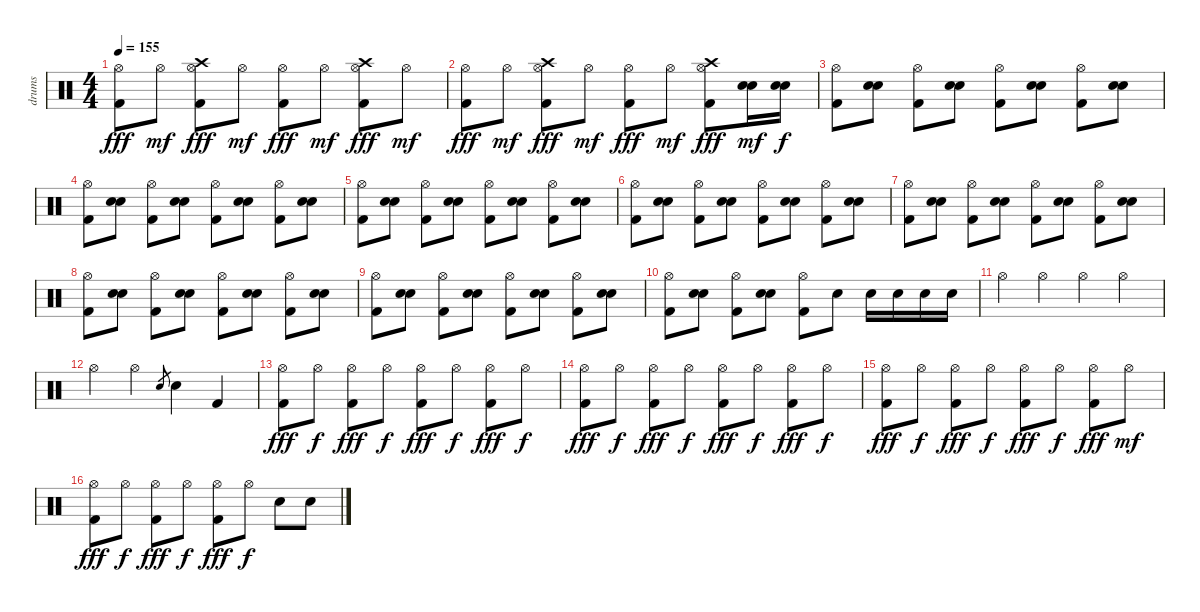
\track ("drums" "drums") {instrument percussion}
\staff {score}
\articulation defaults
\ts (4 4)
\tempo 155
\clef neutral
\ks c
("Hi-Hat (open)" "Kick (hit) 2").8{dy fff} "Hi-Hat (open)".8{dy mf} ("Crash high (hit)" "Hi-Hat (open)" "Kick (hit) 2").8{dy fff} "Hi-Hat (open)".8{dy mf} ("Hi-Hat (open)" "Kick (hit) 2").8{dy fff} "Hi-Hat (open)".8{dy mf} ("Crash high (hit)" "Hi-Hat (open)" "Kick (hit) 2").8{dy fff} "Hi-Hat (open)".8{dy mf} |
("Hi-Hat (open)" "Kick (hit) 2").8{dy fff} "Hi-Hat (open)".8{dy mf} ("Crash high (hit)" "Hi-Hat (open)" "Kick (hit) 2").8{dy fff} "Hi-Hat (open)".8{dy mf} ("Hi-Hat (open)" "Kick (hit) 2").8{dy fff} "Hi-Hat (open)".8{dy mf} ("Crash high (hit)" "Hi-Hat (open)" "Kick (hit) 2").8{dy fff} ("Snare (hit) 2" "Snare (hit) 2").16{dy mf} ("Snare (hit) 2" "Snare (hit) 2").16{dy f} |
("Hi-Hat (open)" "Kick (hit) 2").8 ("Snare (hit) 2" "Snare (hit) 2").8 ("Hi-Hat (open)" "Kick (hit) 2").8 ("Snare (hit) 2" "Snare (hit) 2").8 ("Hi-Hat (open)" "Kick (hit) 2").8 ("Snare (hit) 2" "Snare (hit) 2").8 ("Hi-Hat (open)" "Kick (hit) 2").8 ("Snare (hit) 2" "Snare (hit) 2").8 |
("Hi-Hat (open)" "Kick (hit) 2").8 ("Snare (hit) 2" "Snare (hit) 2").8 ("Hi-Hat (open)" "Kick (hit) 2").8 ("Snare (hit) 2" "Snare (hit) 2").8 ("Hi-Hat (open)" "Kick (hit) 2").8 ("Snare (hit) 2" "Snare (hit) 2").8 ("Hi-Hat (open)" "Kick (hit) 2").8 ("Snare (hit) 2" "Snare (hit) 2").8 |
("Hi-Hat (open)" "Kick (hit) 2").8 ("Snare (hit) 2" "Snare (hit) 2").8 ("Hi-Hat (open)" "Kick (hit) 2").8 ("Snare (hit) 2" "Snare (hit) 2").8 ("Hi-Hat (open)" "Kick (hit) 2").8 ("Snare (hit) 2" "Snare (hit) 2").8 ("Hi-Hat (open)" "Kick (hit) 2").8 ("Snare (hit) 2" "Snare (hit) 2").8 |
("Hi-Hat (open)" "Kick (hit) 2").8 ("Snare (hit) 2" "Snare (hit) 2").8 ("Hi-Hat (open)" "Kick (hit) 2").8 ("Snare (hit) 2" "Snare (hit) 2").8 ("Hi-Hat (open)" "Kick (hit) 2").8 ("Snare (hit) 2" "Snare (hit) 2").8 ("Hi-Hat (open)" "Kick (hit) 2").8 ("Snare (hit) 2" "Snare (hit) 2").8 |
("Hi-Hat (open)" "Kick (hit) 2").8 ("Snare (hit) 2" "Snare (hit) 2").8 ("Hi-Hat (open)" "Kick (hit) 2").8 ("Snare (hit) 2" "Snare (hit) 2").8 ("Hi-Hat (open)" "Kick (hit) 2").8 ("Snare (hit) 2" "Snare (hit) 2").8 ("Hi-Hat (open)" "Kick (hit) 2").8 ("Snare (hit) 2" "Snare (hit) 2").8 |
("Hi-Hat (open)" "Kick (hit) 2").8 ("Snare (hit) 2" "Snare (hit) 2").8 ("Hi-Hat (open)" "Kick (hit) 2").8 ("Snare (hit) 2" "Snare (hit) 2").8 ("Hi-Hat (open)" "Kick (hit) 2").8 ("Snare (hit) 2" "Snare (hit) 2").8 ("Hi-Hat (open)" "Kick (hit) 2").8 ("Snare (hit) 2" "Snare (hit) 2").8 |
("Hi-Hat (open)" "Kick (hit) 2").8 ("Snare (hit) 2" "Snare (hit) 2").8 ("Hi-Hat (open)" "Kick (hit) 2").8 ("Snare (hit) 2" "Snare (hit) 2").8 ("Hi-Hat (open)" "Kick (hit) 2").8 ("Snare (hit) 2" "Snare (hit) 2").8 ("Hi-Hat (open)" "Kick (hit) 2").8 ("Snare (hit) 2" "Snare (hit) 2").8 |
("Hi-Hat (open)" "Kick (hit) 2").8 ("Snare (hit) 2" "Snare (hit) 2").8 ("Hi-Hat (open)" "Kick (hit) 2").8 ("Snare (hit) 2" "Snare (hit) 2").8 ("Hi-Hat (open)" "Kick (hit) 2").8 "Snare (hit) 2".8 "Snare (hit) 2".16 "Snare (hit) 2".16 "Snare (hit) 2".16 "Snare (hit) 2".16 |
"Hi-Hat (open)".4 "Hi-Hat (open)".4 "Hi-Hat (open)".4 "Hi-Hat (open)".4 |
"Hi-Hat (open)".4 "Hi-Hat (open)".4 "Snare (hit) 2".8{gr} "Snare (hit) 2".4 "Kick (hit) 2".4 |
("Hi-Hat (open)" "Kick (hit) 2").8{dy fff} "Hi-Hat (open)".8{dy f} ("Hi-Hat (open)" "Kick (hit) 2").8{dy fff} "Hi-Hat (open)".8{dy f} ("Hi-Hat (open)" "Kick (hit) 2").8{dy fff} "Hi-Hat (open)".8{dy f} ("Hi-Hat (open)" "Kick (hit) 2").8{dy fff} "Hi-Hat (open)".8{dy f} |
("Hi-Hat (open)" "Kick (hit) 2").8{dy fff} "Hi-Hat (open)".8{dy f} ("Hi-Hat (open)" "Kick (hit) 2").8{dy fff} "Hi-Hat (open)".8{dy f} ("Hi-Hat (open)" "Kick (hit) 2").8{dy fff} "Hi-Hat (open)".8{dy f} ("Hi-Hat (open)" "Kick (hit) 2").8{dy fff} "Hi-Hat (open)".8{dy f} |
("Hi-Hat (open)" "Kick (hit) 2").8{dy fff} "Hi-Hat (open)".8{dy f} ("Hi-Hat (open)" "Kick (hit) 2").8{dy fff} "Hi-Hat (open)".8{dy f} ("Hi-Hat (open)" "Kick (hit) 2").8{dy fff} "Hi-Hat (open)".8{dy f} ("Hi-Hat (open)" "Kick (hit) 2").8{dy fff} "Hi-Hat (open)".8{dy mf} |
("Hi-Hat (open)" "Kick (hit) 2").8{dy fff} "Hi-Hat (open)".8{dy f} ("Hi-Hat (open)" "Kick (hit) 2").8{dy fff} "Hi-Hat (open)".8{dy f} ("Hi-Hat (open)" "Kick (hit) 2").8{dy fff} "Hi-Hat (open)".8{dy f} "Snare (hit) 2".8 "Snare (hit) 2".8
